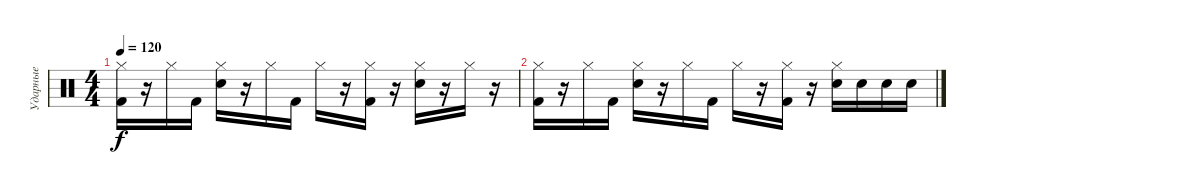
\track ("Ударные" "Ударные") {instrument percussion}
\staff {score}
\articulation defaults
\ts (4 4)
\tempo 120
\clef neutral
\ks c
("Hi-Hat (closed)" "Kick (hit) 2").16{dy f} r.16 "Hi-Hat (closed)".16 "Kick (hit) 2".16 ("Hi-Hat (closed)" "Electric Snare (hit)").16 r.16 "Hi-Hat (closed)".16 "Kick (hit) 2".16 "Hi-Hat (closed)".16 r.16 ("Hi-Hat (closed)" "Kick (hit) 2").16 r.16 ("Hi-Hat (closed)" "Electric Snare (hit)").16 r.16 "Hi-Hat (closed)".16 r.16 |
("Hi-Hat (closed)" "Kick (hit) 2").16 r.16 "Hi-Hat (closed)".16 "Kick (hit) 2".16 ("Hi-Hat (closed)" "Electric Snare (hit)").16 r.16 "Hi-Hat (closed)".16 "Kick (hit) 2".16 "Hi-Hat (closed)".16 r.16 ("Hi-Hat (closed)" "Kick (hit) 2").16 r.16 ("Hi-Hat (closed)" "Electric Snare (hit)").16 "Electric Snare (hit)".16 "Electric Snare (hit)".16 "Electric Snare (hit)".16
